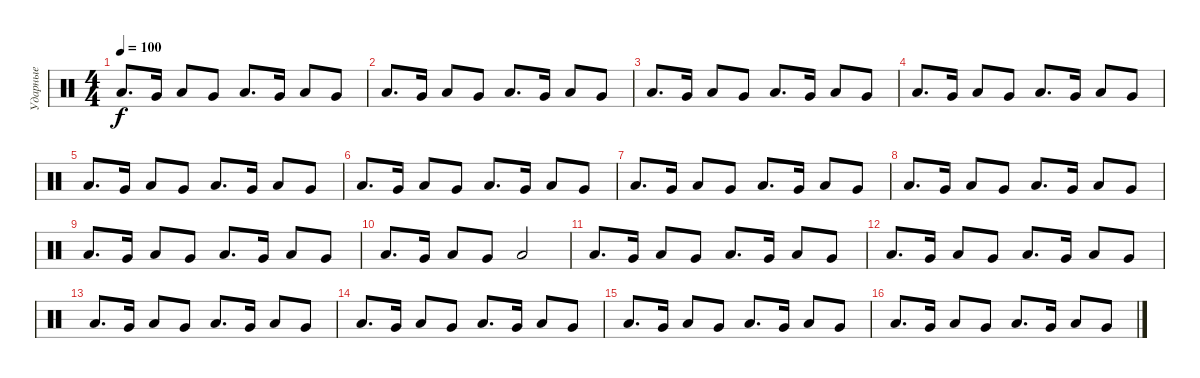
\track ("Ударные" "Ударные") {instrument percussion}
\staff {score}
\articulation defaults
\ts (4 4)
\tempo 100
\clef neutral
\ks c "Low Floor Tom (hit)".8{d dy f} "Very Low Tom (hit)".16 "Low Floor Tom (hit)".8 "Very Low Tom (hit)".8 "Low Floor Tom (hit)".8{d} "Very Low Tom (hit)".16 "Low Floor Tom (hit)".8 "Very Low Tom (hit)".8
|
"Low Floor Tom (hit)".8{d} "Very Low Tom (hit)".16 "Low Floor Tom (hit)".8 "Very Low Tom (hit)".8 "Low Floor Tom (hit)".8{d} "Very Low Tom (hit)".16 "Low Floor Tom (hit)".8 "Very Low Tom (hit)".8 |
"Low Floor Tom (hit)".8{d} "Very Low Tom (hit)".16 "Low Floor Tom (hit)".8 "Very Low Tom (hit)".8 "Low Floor Tom (hit)".8{d} "Very Low Tom (hit)".16 "Low Floor Tom (hit)".8 "Very Low Tom (hit)".8 |
"Low Floor Tom (hit)".8{d} "Very Low Tom (hit)".16 "Low Floor Tom (hit)".8 "Very Low Tom (hit)".8 "Low Floor Tom (hit)".8{d} "Very Low Tom (hit)".16 "Low Floor Tom (hit)".8 "Very Low Tom (hit)".8 |
"Low Floor Tom (hit)".8{d} "Very Low Tom (hit)".16 "Low Floor Tom (hit)".8 "Very Low Tom (hit)".8 "Low Floor Tom (hit)".8{d} "Very Low Tom (hit)".16 "Low Floor Tom (hit)".8 "Very Low Tom (hit)".8 |
"Low Floor Tom (hit)".8{d} "Very Low Tom (hit)".16 "Low Floor Tom (hit)".8 "Very Low Tom (hit)".8 "Low Floor Tom (hit)".8{d} "Very Low Tom (hit)".16 "Low Floor Tom (hit)".8 "Very Low Tom (hit)".8 |
"Low Floor Tom (hit)".8{d} "Very Low Tom (hit)".16 "Low Floor Tom (hit)".8 "Very Low Tom (hit)".8 "Low Floor Tom (hit)".8{d} "Very Low Tom (hit)".16 "Low Floor Tom (hit)".8 "Very Low Tom (hit)".8 |
"Low Floor Tom (hit)".8{d} "Very Low Tom (hit)".16 "Low Floor Tom (hit)".8 "Very Low Tom (hit)".8 "Low Floor Tom (hit)".8{d} "Very Low Tom (hit)".16 "Low Floor Tom (hit)".8 "Very Low Tom (hit)".8 |
"Low Floor Tom (hit)".8{d} "Very Low Tom (hit)".16 "Low Floor Tom (hit)".8 "Very Low Tom (hit)".8 "Low Floor Tom (hit)".8{d} "Very Low Tom (hit)".16 "Low Floor Tom (hit)".8 "Very Low Tom (hit)".8 |
"Low Floor Tom (hit)".8{d} "Very Low Tom (hit)".16 "Low Floor Tom (hit)".8 "Very Low Tom (hit)".8 "Low Floor Tom (hit)".2 |
"Low Floor Tom (hit)".8{d} "Very Low Tom (hit)".16 "Low Floor Tom (hit)".8 "Very Low Tom (hit)".8 "Low Floor Tom (hit)".8{d} "Very Low Tom (hit)".16 "Low Floor Tom (hit)".8 "Very Low Tom (hit)".8 |
"Low Floor Tom (hit)".8{d} "Very Low Tom (hit)".16 "Low Floor Tom (hit)".8 "Very Low Tom (hit)".8 "Low Floor Tom (hit)".8{d} "Very Low Tom (hit)".16 "Low Floor Tom (hit)".8 "Very Low Tom (hit)".8 |
"Low Floor Tom (hit)".8{d} "Very Low Tom (hit)".16 "Low Floor Tom (hit)".8 "Very Low Tom (hit)".8 "Low Floor Tom (hit)".8{d} "Very Low Tom (hit)".16 "Low Floor Tom (hit)".8 "Very Low Tom (hit)".8 |
"Low Floor Tom (hit)".8{d} "Very Low Tom (hit)".16 "Low Floor Tom (hit)".8 "Very Low Tom (hit)".8 "Low Floor Tom (hit)".8{d} "Very Low Tom (hit)".16 "Low Floor Tom (hit)".8 "Very Low Tom (hit)".8 |
"Low Floor Tom (hit)".8{d} "Very Low Tom (hit)".16 "Low Floor Tom (hit)".8 "Very Low Tom (hit)".8 "Low Floor Tom (hit)".8{d} "Very Low Tom (hit)".16 "Low Floor Tom (hit)".8 "Very Low Tom (hit)".8 |
"Low Floor Tom (hit)".8{d} "Very Low Tom (hit)".16 "Low Floor Tom (hit)".8 "Very Low Tom (hit)".8 "Low Floor Tom (hit)".8{d} "Very Low Tom (hit)".16 "Low Floor Tom (hit)".8 "Very Low Tom (hit)".8
